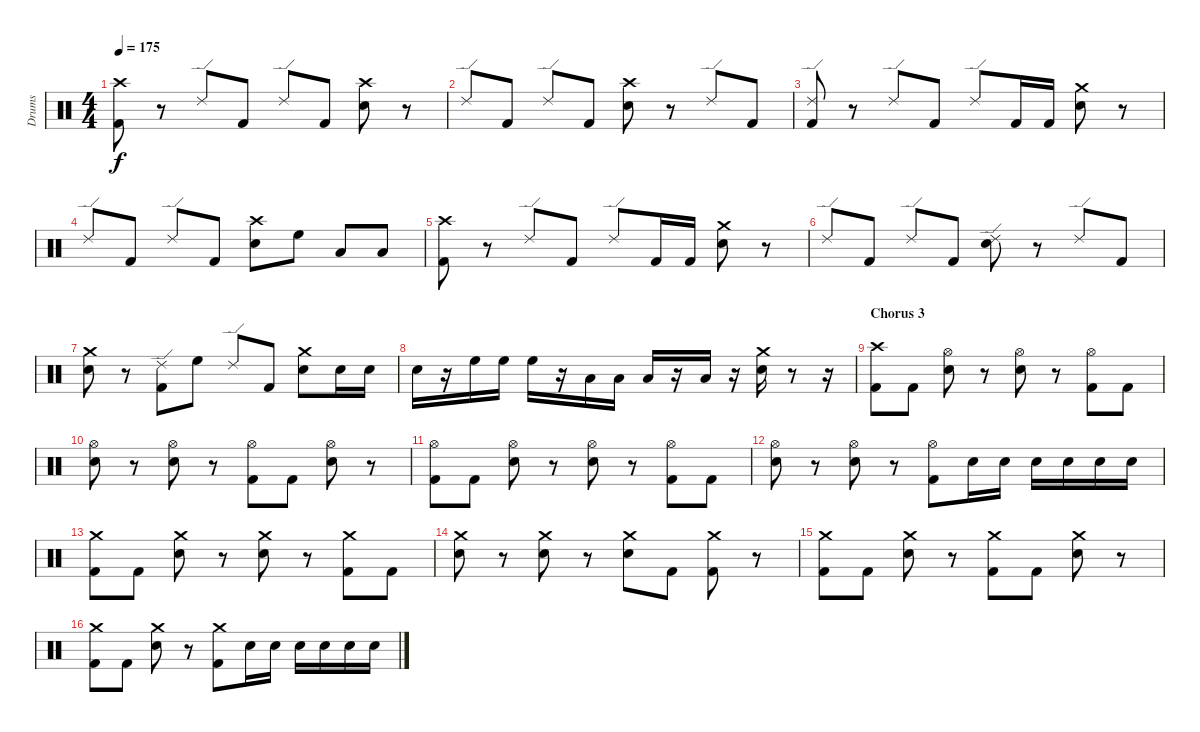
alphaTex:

\track ("Drums" "Drums") {instrument percussion}
\staff {score}
\articulation defaults
\ts (4 4)
\tempo 175
\clef neutral
\ks c
("Crash high (hit)" "Kick (hit) 2").8{dy f} r.8 "Ride (edge) 2".8 "Kick (hit) 2".8 "Ride (edge) 2".8 "Kick (hit) 2".8 ("Crash high (hit)" "Snare (hit) 2").8 r.8 |
"Ride (edge) 2".8 "Kick (hit) 2".8 "Ride (edge) 2".8 "Kick (hit) 2".8 ("Crash high (hit)" "Snare (hit) 2").8 r.8 "Ride (edge) 2".8 "Kick (hit) 2".8 |
("Ride (edge) 2" "Kick (hit) 2").8 r.8 "Ride (edge) 2".8 "Kick (hit) 2".8 "Ride (edge) 2".8 "Kick (hit) 2".16 "Kick (hit) 2".16 ("Crash medium (hit)" "Snare (hit) 2").8 r.8 |
"Ride (edge) 2".8 "Kick (hit) 2".8 "Ride (edge) 2".8 "Kick (hit) 2".8 ("Crash high (hit)" "Snare (hit) 2").8 "High Floor Tom (hit)".8 "Low Floor Tom (hit)".8 "Low Floor Tom (hit)".8 |
("Crash high (hit)" "Kick (hit) 2").8 r.8 "Ride (edge) 2".8 "Kick (hit) 2".8 "Ride (edge) 2".8 "Kick (hit) 2".16 "Kick (hit) 2".16 ("Crash medium (hit)" "Snare (hit) 2").8 r.8 |
"Ride (edge) 2".8 "Kick (hit) 2".8 "Ride (edge) 2".8 "Kick (hit) 2".8 ("Ride (edge) 2" "Snare (hit) 2").8 r.8 "Ride (edge) 2".8 "Kick (hit) 2".8 |
("Crash medium (hit)" "Snare (hit) 2").8 r.8 ("Ride (edge) 2" "Kick (hit) 2").8 "High Floor Tom (hit)".8 "Ride (edge) 2".8 "Kick (hit) 2".8 ("Crash medium (hit)" "Snare (hit) 2").8 "Snare (hit) 2".16 "Snare (hit) 2".16 |
"Snare (hit) 2".16 r.16 "High Floor Tom (hit)".16 "High Floor Tom (hit)".16 "High Floor Tom (hit)".16 r.16 "Low Floor Tom (hit)".16 "Low Floor Tom (hit)".16 "Low Floor Tom (hit)".16 r.16 "Low Floor Tom (hit)".16 r.16 ("Crash medium (hit)" "Snare (hit) 2").16 r.8 r.16 |
\section ("" "Chorus 3")
("Crash high (hit)" "Kick (hit) 2").8 "Kick (hit) 2".8 ("Hi-Hat (open)" "Snare (hit) 2").8 r.8 ("Hi-Hat (open)" "Snare (hit) 2").8 r.8 ("Hi-Hat (open)" "Kick (hit) 2").8 "Kick (hit) 2".8 |
("Hi-Hat (open)" "Snare (hit) 2").8 r.8 ("Hi-Hat (open)" "Snare (hit) 2").8 r.8 ("Hi-Hat (open)" "Kick (hit) 2").8 "Kick (hit) 2".8 ("Hi-Hat (open)" "Snare (hit) 2").8 r.8 |
("Hi-Hat (open)" "Kick (hit) 2").8 "Kick (hit) 2".8 ("Hi-Hat (open)" "Snare (hit) 2").8 r.8 ("Hi-Hat (open)" "Snare (hit) 2").8 r.8 ("Hi-Hat (open)" "Kick (hit) 2").8 "Kick (hit) 2".8 |
("Hi-Hat (open)" "Snare (hit) 2").8 r.8 ("Hi-Hat (open)" "Snare (hit) 2").8 r.8 ("Hi-Hat (open)" "Kick (hit) 2").8 "Snare (hit) 2".16 "Snare (hit) 2".16 "Snare (hit) 2".16 "Snare (hit) 2".16 "Snare (hit) 2".16 "Snare (hit) 2".16 |
("Crash medium (hit)" "Kick (hit) 2").8 "Kick (hit) 2".8 ("Crash medium (hit)" "Snare (hit) 2").8 r.8 ("Crash medium (hit)" "Snare (hit) 2").8 r.8 ("Crash medium (hit)" "Kick (hit) 2").8 "Kick (hit) 2".8 |
("Crash medium (hit)" "Snare (hit) 2").8 r.8 ("Crash medium (hit)" "Snare (hit) 2").8 r.8 ("Crash medium (hit)" "Snare (hit) 2").8 "Kick (hit) 2".8 ("Crash medium (hit)" "Kick (hit) 2").8 r.8 |
("Crash medium (hit)" "Kick (hit) 2").8 "Kick (hit) 2".8 ("Crash medium (hit)" "Snare (hit) 2").8 r.8 ("Crash medium (hit)" "Kick (hit) 2").8 "Kick (hit) 2".8 ("Crash medium (hit)" "Snare (hit) 2").8 r.8 |
("Crash medium (hit)" "Kick (hit) 2").8 "Kick (hit) 2".8 ("Crash medium (hit)" "Snare (hit) 2").8 r.8 ("Crash medium (hit)" "Kick (hit) 2").8 "Snare (hit) 2".16 "Snare (hit) 2".16 "Snare (hit) 2".16 "Snare (hit) 2".16 "Snare (hit) 2".16 "Snare (hit) 2".16
